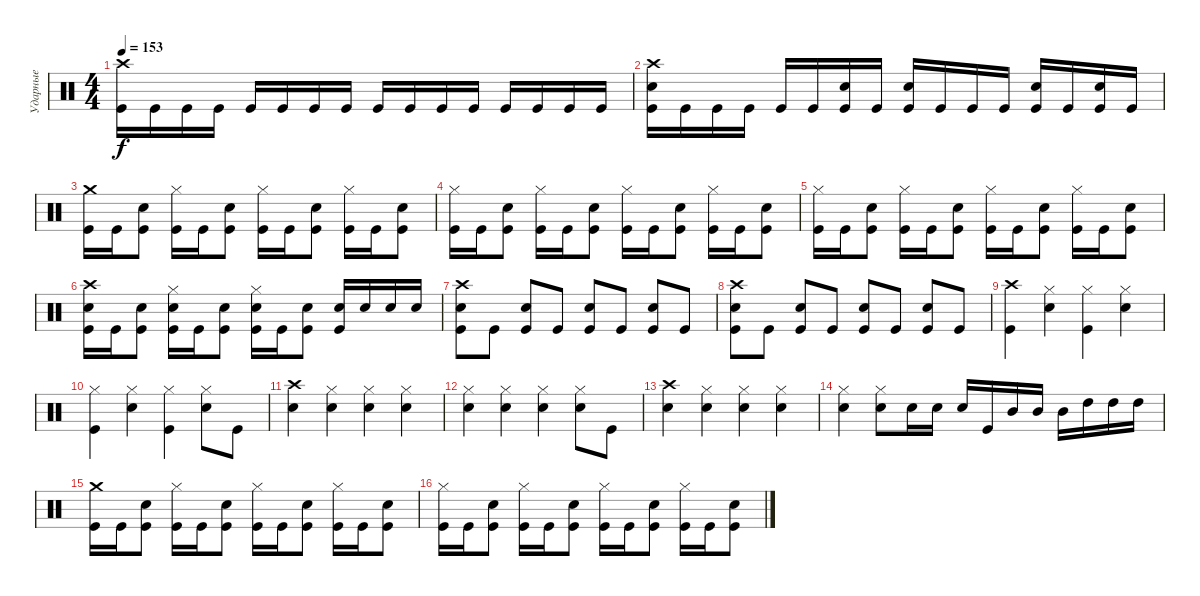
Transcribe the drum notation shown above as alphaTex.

\track ("Ударные" "Ударные") {instrument percussion}
\staff {score}
\articulation defaults
\ts (4 4)
\tempo 153
\clef neutral
\ks c
("Crash high (hit)" "Kick (hit)").16{dy f} "Kick (hit)".16 "Kick (hit)".16 "Kick (hit)".16 "Kick (hit)".16 "Kick (hit)".16 "Kick (hit)".16 "Kick (hit)".16 "Kick (hit)".16 "Kick (hit)".16 "Kick (hit)".16 "Kick (hit)".16 "Kick (hit)".16 "Kick (hit)".16 "Kick (hit)".16 "Kick (hit)".16 |
("Crash high (hit)" "Electric Snare (hit)" "Kick (hit)").16 "Kick (hit)".16 "Kick (hit)".16 "Kick (hit)".16 "Kick (hit)".16 "Kick (hit)".16 ("Electric Snare (hit)" "Kick (hit)").16 "Kick (hit)".16 ("Electric Snare (hit)" "Kick (hit)").16 "Kick (hit)".16 "Kick (hit)".16 "Kick (hit)".16 ("Electric Snare (hit)" "Kick (hit)").16 "Kick (hit)".16 ("Electric Snare (hit)" "Kick (hit)").16 "Kick (hit)".16 |
("Crash medium (hit)" "Kick (hit)").16 "Kick (hit)".16 ("Electric Snare (hit)" "Kick (hit)").8 ("Hi-Hat (closed)" "Kick (hit)").16 "Kick (hit)".16 ("Electric Snare (hit)" "Kick (hit)").8 ("Hi-Hat (closed)" "Kick (hit)").16 "Kick (hit)".16 ("Electric Snare (hit)" "Kick (hit)").8 ("Hi-Hat (closed)" "Kick (hit)").16 "Kick (hit)".16 ("Electric Snare (hit)" "Kick (hit)").8 |
("Hi-Hat (closed)" "Kick (hit)").16 "Kick (hit)".16 ("Electric Snare (hit)" "Kick (hit)").8 ("Hi-Hat (closed)" "Kick (hit)").16 "Kick (hit)".16 ("Electric Snare (hit)" "Kick (hit)").8 ("Hi-Hat (closed)" "Kick (hit)").16 "Kick (hit)".16 ("Electric Snare (hit)" "Kick (hit)").8 ("Hi-Hat (closed)" "Kick (hit)").16 "Kick (hit)".16 ("Electric Snare (hit)" "Kick (hit)").8 |
("Hi-Hat (closed)" "Kick (hit)").16 "Kick (hit)".16 ("Electric Snare (hit)" "Kick (hit)").8 ("Hi-Hat (closed)" "Kick (hit)").16 "Kick (hit)".16 ("Electric Snare (hit)" "Kick (hit)").8 ("Hi-Hat (closed)" "Kick (hit)").16 "Kick (hit)".16 ("Electric Snare (hit)" "Kick (hit)").8 ("Hi-Hat (closed)" "Kick (hit)").16 "Kick (hit)".16 ("Electric Snare (hit)" "Kick (hit)").8 |
("Crash high (hit)" "Electric Snare (hit)" "Kick (hit)").16 "Kick (hit)".16 ("Electric Snare (hit)" "Kick (hit)").8 ("Hi-Hat (closed)" "Electric Snare (hit)" "Kick (hit)").16 "Kick (hit)".16 ("Electric Snare (hit)" "Kick (hit)").8 ("Hi-Hat (closed)" "Electric Snare (hit)" "Kick (hit)").16 "Kick (hit)".16 ("Electric Snare (hit)" "Kick (hit)").8 ("Electric Snare (hit)" "Kick (hit)").16 "Electric Snare (hit)".16 "Electric Snare (hit)".16 "Electric Snare (hit)".16 |
("Crash high (hit)" "Electric Snare (hit)" "Kick (hit)").8 "Kick (hit)".8 ("Electric Snare (hit)" "Kick (hit)").8 "Kick (hit)".8 ("Electric Snare (hit)" "Kick (hit)").8 "Kick (hit)".8 ("Electric Snare (hit)" "Kick (hit)").8 "Kick (hit)".8 |
("Crash high (hit)" "Electric Snare (hit)" "Kick (hit)").8 "Kick (hit)".8 ("Electric Snare (hit)" "Kick (hit)").8 "Kick (hit)".8 ("Electric Snare (hit)" "Kick (hit)").8 "Kick (hit)".8 ("Electric Snare (hit)" "Kick (hit)").8 "Kick (hit)".8 |
("Crash high (hit)" "Kick (hit)").4 ("Hi-Hat (closed)" "Electric Snare (hit)").4 ("Hi-Hat (closed)" "Kick (hit)").4 ("Hi-Hat (closed)" "Electric Snare (hit)").4 |
("Hi-Hat (closed)" "Kick (hit)").4 ("Hi-Hat (closed)" "Electric Snare (hit)").4 ("Hi-Hat (closed)" "Kick (hit)").4 ("Hi-Hat (closed)" "Electric Snare (hit)").8 "Kick (hit)".8 |
("Crash high (hit)" "Electric Snare (hit)").4 ("Hi-Hat (closed)" "Electric Snare (hit)").4 ("Hi-Hat (closed)" "Electric Snare (hit)").4 ("Hi-Hat (closed)" "Electric Snare (hit)").4 |
("Hi-Hat (closed)" "Electric Snare (hit)").4 ("Hi-Hat (closed)" "Electric Snare (hit)").4 ("Hi-Hat (closed)" "Electric Snare (hit)").4 ("Hi-Hat (closed)" "Electric Snare (hit)").8 "Kick (hit)".8 |
("Crash high (hit)" "Electric Snare (hit)").4 ("Hi-Hat (closed)" "Electric Snare (hit)").4 ("Hi-Hat (closed)" "Electric Snare (hit)").4 ("Hi-Hat (closed)" "Electric Snare (hit)").4 |
("Hi-Hat (closed)" "Electric Snare (hit)").4 ("Hi-Hat (closed)" "Electric Snare (hit)").8 "Electric Snare (hit)".16 "Electric Snare (hit)".16 "Electric Snare (hit)".16 "Kick (hit)".16 "Mid Tom (hit)".16 "Mid Tom (hit)".16 "Mid Tom (hit)".16 "High Tom (hit)".16 "High Tom (hit)".16 "High Tom (hit)".16 |
("Crash medium (hit)" "Kick (hit)").16 "Kick (hit)".16 ("Electric Snare (hit)" "Kick (hit)").8 ("Hi-Hat (closed)" "Kick (hit)").16 "Kick (hit)".16 ("Electric Snare (hit)" "Kick (hit)").8 ("Hi-Hat (closed)" "Kick (hit)").16 "Kick (hit)".16 ("Electric Snare (hit)" "Kick (hit)").8 ("Hi-Hat (closed)" "Kick (hit)").16 "Kick (hit)".16 ("Electric Snare (hit)" "Kick (hit)").8 |
("Hi-Hat (closed)" "Kick (hit)").16 "Kick (hit)".16 ("Electric Snare (hit)" "Kick (hit)").8 ("Hi-Hat (closed)" "Kick (hit)").16 "Kick (hit)".16 ("Electric Snare (hit)" "Kick (hit)").8 ("Hi-Hat (closed)" "Kick (hit)").16 "Kick (hit)".16 ("Electric Snare (hit)" "Kick (hit)").8 ("Hi-Hat (closed)" "Kick (hit)").16 "Kick (hit)".16 ("Electric Snare (hit)" "Kick (hit)").8
